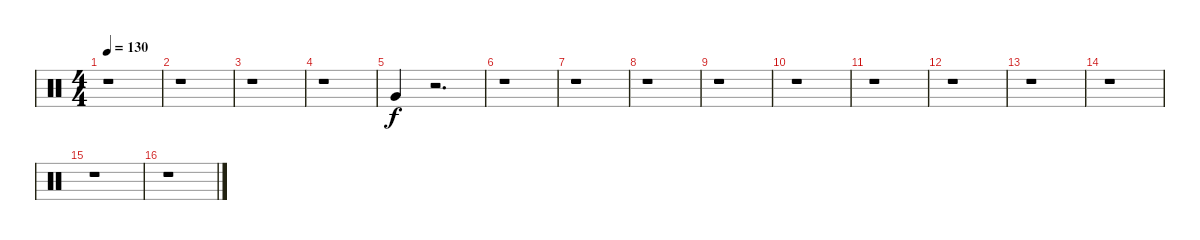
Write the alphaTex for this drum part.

\track "" {instrument percussion}
\staff {score}
\articulation defaults
\ts (4 4)
\tempo 130
\clef neutral
\ks c
r.1{dy f} |
r.1 |
r.1 |
r.1 |
"Very Low Tom (hit)".4 r.2{d} |
r.1 |
r.1 |
r.1 |
r.1 |
r.1 |
r.1 |
r.1 |
r.1 |
r.1 |
r.1 |
r.1
